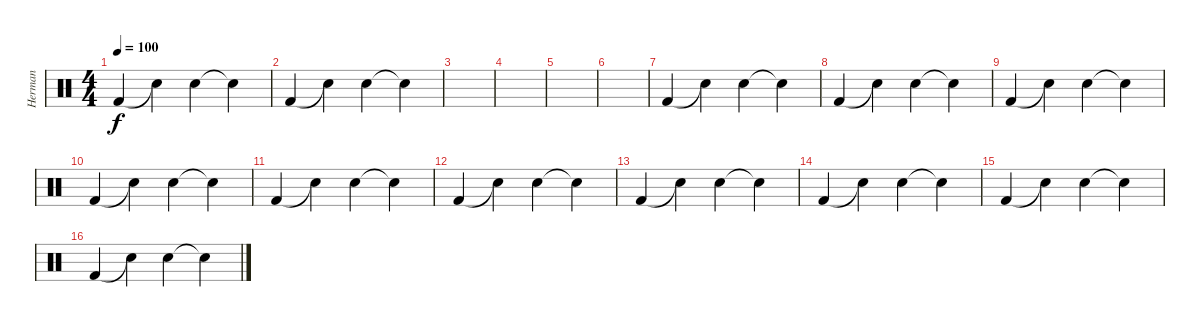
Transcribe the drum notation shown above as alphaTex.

\track ("Herman" "Herman") {instrument percussion}
\staff {score}
\articulation defaults
\ts (4 4)
\tempo 100
\clef neutral
\ks c "Kick (hit) 2".4{dy f} "Snare (hit)"{t}.4 "Snare (hit) 2".4 "Snare (hit)"{t}.4
|
"Kick (hit) 2".4 "Snare (hit)"{t}.4 "Snare (hit) 2".4 "Snare (hit)"{t}.4 |
|
|
|
|
"Kick (hit) 2".4 "Snare (hit)"{t}.4 "Snare (hit) 2".4 "Snare (hit)"{t}.4 |
"Kick (hit) 2".4 "Snare (hit)"{t}.4 "Snare (hit) 2".4 "Snare (hit)"{t}.4 |
"Kick (hit) 2".4 "Snare (hit)"{t}.4 "Snare (hit) 2".4 "Snare (hit)"{t}.4 |
"Kick (hit) 2".4 "Snare (hit)"{t}.4 "Snare (hit) 2".4 "Snare (hit)"{t}.4 |
"Kick (hit) 2".4 "Snare (hit)"{t}.4 "Snare (hit) 2".4 "Snare (hit)"{t}.4 |
"Kick (hit) 2".4 "Snare (hit)"{t}.4 "Snare (hit) 2".4 "Snare (hit)"{t}.4 |
"Kick (hit) 2".4 "Snare (hit)"{t}.4 "Snare (hit) 2".4 "Snare (hit)"{t}.4 |
"Kick (hit) 2".4 "Snare (hit)"{t}.4 "Snare (hit) 2".4 "Snare (hit)"{t}.4 |
"Kick (hit) 2".4 "Snare (hit)"{t}.4 "Snare (hit) 2".4 "Snare (hit)"{t}.4 |
"Kick (hit) 2".4 "Snare (hit)"{t}.4 "Snare (hit) 2".4 "Snare (hit)"{t}.4
